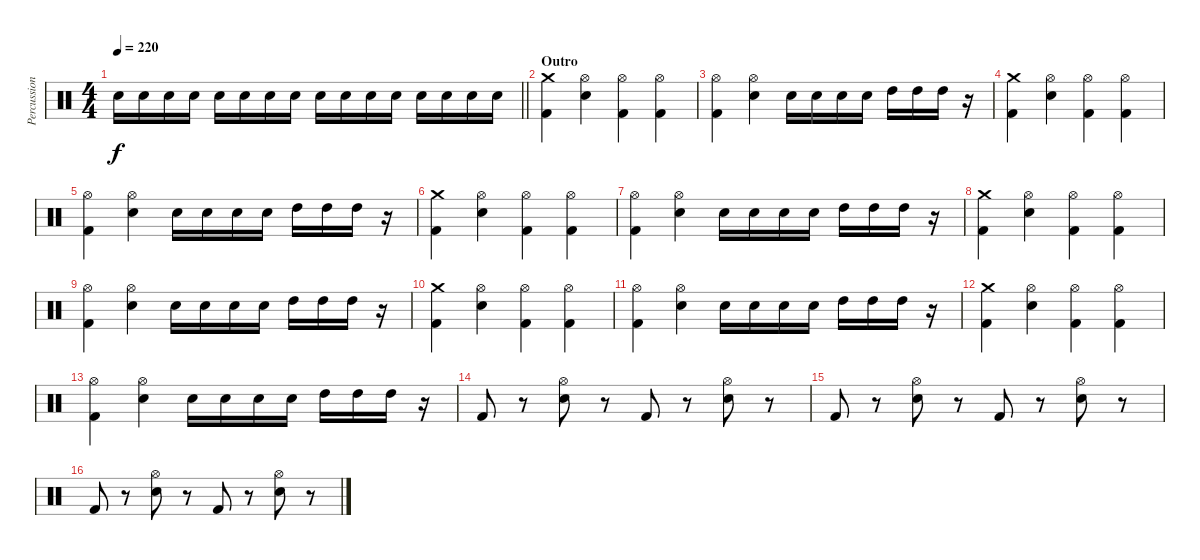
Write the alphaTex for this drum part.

\track ("Percussion" "Percussion") {instrument percussion}
\staff {score}
\articulation defaults
\ts (4 4)
\tempo 220
\clef neutral
\barLineRight lightlight
\ks c "Snare (hit) 2".16{dy f} "Snare (hit) 2".16 "Snare (hit) 2".16 "Snare (hit) 2".16 "Snare (hit) 2".16 "Snare (hit) 2".16 "Snare (hit) 2".16 "Snare (hit) 2".16 "Snare (hit) 2".16 "Snare (hit) 2".16 "Snare (hit) 2".16 "Snare (hit) 2".16 "Snare (hit) 2".16 "Snare (hit) 2".16 "Snare (hit) 2".16 "Snare (hit) 2".16
|
\section ("" "Outro")
("Crash medium (hit)" "Kick (hit) 2").4 ("Hi-Hat (open)" "Snare (hit) 2").4 ("Hi-Hat (open)" "Kick (hit) 2").4 ("Hi-Hat (open)" "Kick (hit) 2").4 |
("Hi-Hat (open)" "Kick (hit) 2").4 ("Hi-Hat (open)" "Snare (hit) 2").4 "Snare (hit) 2".16 "Snare (hit) 2".16 "Snare (hit) 2".16 "Snare (hit) 2".16 "High Tom (hit)".16 "High Tom (hit)".16 "High Tom (hit)".16 r.16 |
("Crash medium (hit)" "Kick (hit) 2").4 ("Hi-Hat (open)" "Snare (hit) 2").4 ("Hi-Hat (open)" "Kick (hit) 2").4 ("Hi-Hat (open)" "Kick (hit) 2").4 |
("Hi-Hat (open)" "Kick (hit) 2").4 ("Hi-Hat (open)" "Snare (hit) 2").4 "Snare (hit) 2".16 "Snare (hit) 2".16 "Snare (hit) 2".16 "Snare (hit) 2".16 "High Tom (hit)".16 "High Tom (hit)".16 "High Tom (hit)".16 r.16 |
("Crash medium (hit)" "Kick (hit) 2").4 ("Hi-Hat (open)" "Snare (hit) 2").4 ("Hi-Hat (open)" "Kick (hit) 2").4 ("Hi-Hat (open)" "Kick (hit) 2").4 |
("Hi-Hat (open)" "Kick (hit) 2").4 ("Hi-Hat (open)" "Snare (hit) 2").4 "Snare (hit) 2".16 "Snare (hit) 2".16 "Snare (hit) 2".16 "Snare (hit) 2".16 "High Tom (hit)".16 "High Tom (hit)".16 "High Tom (hit)".16 r.16 |
("Crash medium (hit)" "Kick (hit) 2").4 ("Hi-Hat (open)" "Snare (hit) 2").4 ("Hi-Hat (open)" "Kick (hit) 2").4 ("Hi-Hat (open)" "Kick (hit) 2").4 |
("Hi-Hat (open)" "Kick (hit) 2").4 ("Hi-Hat (open)" "Snare (hit) 2").4 "Snare (hit) 2".16 "Snare (hit) 2".16 "Snare (hit) 2".16 "Snare (hit) 2".16 "High Tom (hit)".16 "High Tom (hit)".16 "High Tom (hit)".16 r.16 |
("Crash medium (hit)" "Kick (hit) 2").4 ("Hi-Hat (open)" "Snare (hit) 2").4 ("Hi-Hat (open)" "Kick (hit) 2").4 ("Hi-Hat (open)" "Kick (hit) 2").4 |
("Hi-Hat (open)" "Kick (hit) 2").4 ("Hi-Hat (open)" "Snare (hit) 2").4 "Snare (hit) 2".16 "Snare (hit) 2".16 "Snare (hit) 2".16 "Snare (hit) 2".16 "High Tom (hit)".16 "High Tom (hit)".16 "High Tom (hit)".16 r.16 |
("Crash medium (hit)" "Kick (hit) 2").4 ("Hi-Hat (open)" "Snare (hit) 2").4 ("Hi-Hat (open)" "Kick (hit) 2").4 ("Hi-Hat (open)" "Kick (hit) 2").4 |
("Hi-Hat (open)" "Kick (hit) 2").4 ("Hi-Hat (open)" "Snare (hit) 2").4 "Snare (hit) 2".16 "Snare (hit) 2".16 "Snare (hit) 2".16 "Snare (hit) 2".16 "High Tom (hit)".16 "High Tom (hit)".16 "High Tom (hit)".16 r.16 |
"Kick (hit) 2".8 r.8 ("Hi-Hat (open)" "Snare (hit) 2").8 r.8 "Kick (hit) 2".8 r.8 ("Hi-Hat (open)" "Snare (hit) 2").8 r.8 |
"Kick (hit) 2".8 r.8 ("Hi-Hat (open)" "Snare (hit) 2").8 r.8 "Kick (hit) 2".8 r.8 ("Hi-Hat (open)" "Snare (hit) 2").8 r.8 |
"Kick (hit) 2".8 r.8 ("Hi-Hat (open)" "Snare (hit) 2").8 r.8 "Kick (hit) 2".8 r.8 ("Hi-Hat (open)" "Snare (hit) 2").8 r.8
